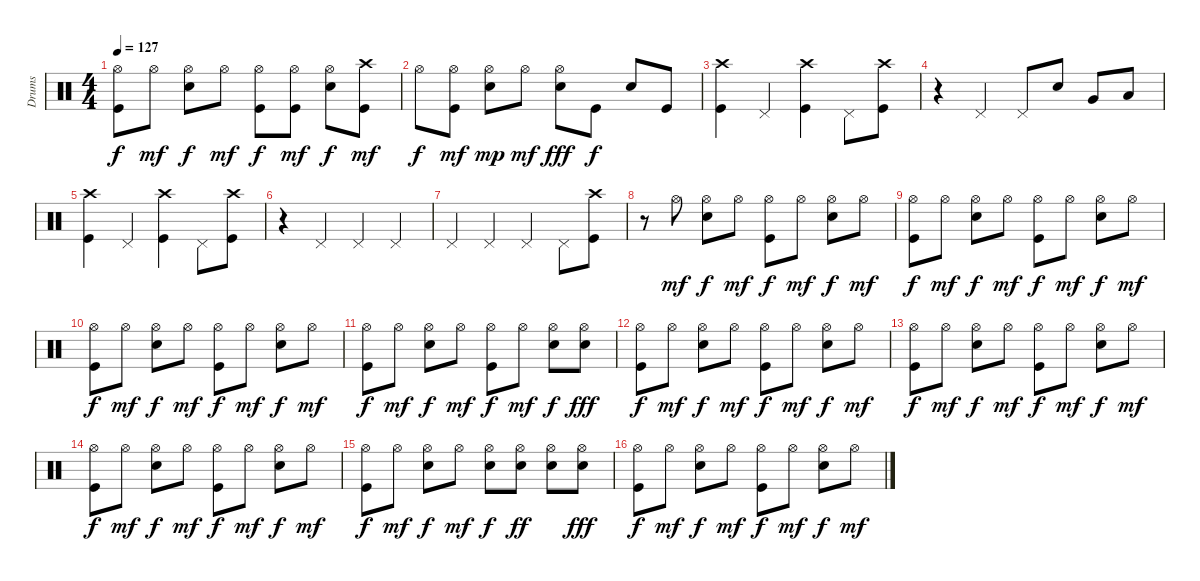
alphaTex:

\track ("Drums" "Drums") {instrument percussion}
\staff {score}
\articulation defaults
\ts (4 4)
\tempo 127
\clef neutral
\ks c
("Hi-Hat (open)" "Kick (hit)").8{dy f} "Hi-Hat (open)".8{dy mf} ("Hi-Hat (open)" "Snare (hit) 2").8{dy f} "Hi-Hat (open)".8{dy mf} ("Hi-Hat (open)" "Kick (hit)").8{dy f} ("Hi-Hat (open)" "Kick (hit)").8{dy mf} ("Hi-Hat (open)" "Snare (hit) 2").8{dy f} ("Crash high (hit)" "Kick (hit)").8{dy mf} |
"Hi-Hat (open)".8{dy f} ("Hi-Hat (open)" "Kick (hit)").8{dy mf} ("Hi-Hat (open)" "Snare (hit) 2").8{dy mp} "Hi-Hat (open)".8{dy mf} ("Hi-Hat (open)" "Snare (hit) 2").8{dy fff} "Kick (hit)".8{dy f} "Snare (hit) 2".8 "Kick (hit)".8 |
("Crash high (hit)" "Kick (hit)").4 "Pedal Hi-Hat (hit)".4 ("Crash high (hit)" "Kick (hit)").4 "Pedal Hi-Hat (hit)".8 ("Crash high (hit)" "Kick (hit)").8 |
r.4 "Pedal Hi-Hat (hit)".4 "Pedal Hi-Hat (hit)".8 "Snare (hit) 2".8 "Very Low Tom (hit)".8 "Low Floor Tom (hit)".8 |
("Crash high (hit)" "Kick (hit)").4 "Pedal Hi-Hat (hit)".4 ("Crash high (hit)" "Kick (hit)").4 "Pedal Hi-Hat (hit)".8 ("Crash high (hit)" "Kick (hit)").8 |
r.4 "Pedal Hi-Hat (hit)".4 "Pedal Hi-Hat (hit)".4 "Pedal Hi-Hat (hit)".4 |
"Pedal Hi-Hat (hit)".4 "Pedal Hi-Hat (hit)".4 "Pedal Hi-Hat (hit)".4 "Pedal Hi-Hat (hit)".8 ("Crash high (hit)" "Kick (hit)").8 |
r.8 "Hi-Hat (open)".8{dy mf} ("Hi-Hat (open)" "Snare (hit) 2").8{dy f} "Hi-Hat (open)".8{dy mf} ("Hi-Hat (open)" "Kick (hit)").8{dy f} "Hi-Hat (open)".8{dy mf} ("Hi-Hat (open)" "Snare (hit) 2").8{dy f} "Hi-Hat (open)".8{dy mf} |
("Hi-Hat (open)" "Kick (hit)").8{dy f} "Hi-Hat (open)".8{dy mf} ("Hi-Hat (open)" "Snare (hit) 2").8{dy f} "Hi-Hat (open)".8{dy mf} ("Hi-Hat (open)" "Kick (hit)").8{dy f} "Hi-Hat (open)".8{dy mf} ("Hi-Hat (open)" "Snare (hit) 2").8{dy f} "Hi-Hat (open)".8{dy mf} |
("Hi-Hat (open)" "Kick (hit)").8{dy f} "Hi-Hat (open)".8{dy mf} ("Hi-Hat (open)" "Snare (hit) 2").8{dy f} "Hi-Hat (open)".8{dy mf} ("Hi-Hat (open)" "Kick (hit)").8{dy f} "Hi-Hat (open)".8{dy mf} ("Hi-Hat (open)" "Snare (hit) 2").8{dy f} "Hi-Hat (open)".8{dy mf} |
("Hi-Hat (open)" "Kick (hit)").8{dy f} "Hi-Hat (open)".8{dy mf} ("Hi-Hat (open)" "Snare (hit) 2").8{dy f} "Hi-Hat (open)".8{dy mf} ("Hi-Hat (open)" "Kick (hit)").8{dy f} "Hi-Hat (open)".8{dy mf} ("Hi-Hat (open)" "Snare (hit) 2").8{dy f} ("Hi-Hat (open)" "Snare (hit) 2").8{dy fff} |
("Hi-Hat (open)" "Kick (hit)").8{dy f} "Hi-Hat (open)".8{dy mf} ("Hi-Hat (open)" "Snare (hit) 2").8{dy f} "Hi-Hat (open)".8{dy mf} ("Hi-Hat (open)" "Kick (hit)").8{dy f} "Hi-Hat (open)".8{dy mf} ("Hi-Hat (open)" "Snare (hit) 2").8{dy f} "Hi-Hat (open)".8{dy mf} |
("Hi-Hat (open)" "Kick (hit)").8{dy f} "Hi-Hat (open)".8{dy mf} ("Hi-Hat (open)" "Snare (hit) 2").8{dy f} "Hi-Hat (open)".8{dy mf} ("Hi-Hat (open)" "Kick (hit)").8{dy f} "Hi-Hat (open)".8{dy mf} ("Hi-Hat (open)" "Snare (hit) 2").8{dy f} "Hi-Hat (open)".8{dy mf} |
("Hi-Hat (open)" "Kick (hit)").8{dy f} "Hi-Hat (open)".8{dy mf} ("Hi-Hat (open)" "Snare (hit) 2").8{dy f} "Hi-Hat (open)".8{dy mf} ("Hi-Hat (open)" "Kick (hit)").8{dy f} "Hi-Hat (open)".8{dy mf} ("Hi-Hat (open)" "Snare (hit) 2").8{dy f} "Hi-Hat (open)".8{dy mf} |
("Hi-Hat (open)" "Kick (hit)").8{dy f} "Hi-Hat (open)".8{dy mf} ("Hi-Hat (open)" "Snare (hit) 2").8{dy f} "Hi-Hat (open)".8{dy mf} ("Hi-Hat (open)" "Snare (hit) 2").8{dy f} ("Hi-Hat (open)" "Snare (hit) 2").8{dy ff} ("Hi-Hat (open)" "Snare (hit) 2").8 ("Hi-Hat (open)" "Snare (hit) 2").8{dy fff} |
("Hi-Hat (open)" "Kick (hit)").8{dy f} "Hi-Hat (open)".8{dy mf} ("Hi-Hat (open)" "Snare (hit) 2").8{dy f} "Hi-Hat (open)".8{dy mf} ("Hi-Hat (open)" "Kick (hit)").8{dy f} "Hi-Hat (open)".8{dy mf} ("Hi-Hat (open)" "Snare (hit) 2").8{dy f} "Hi-Hat (open)".8{dy mf}
